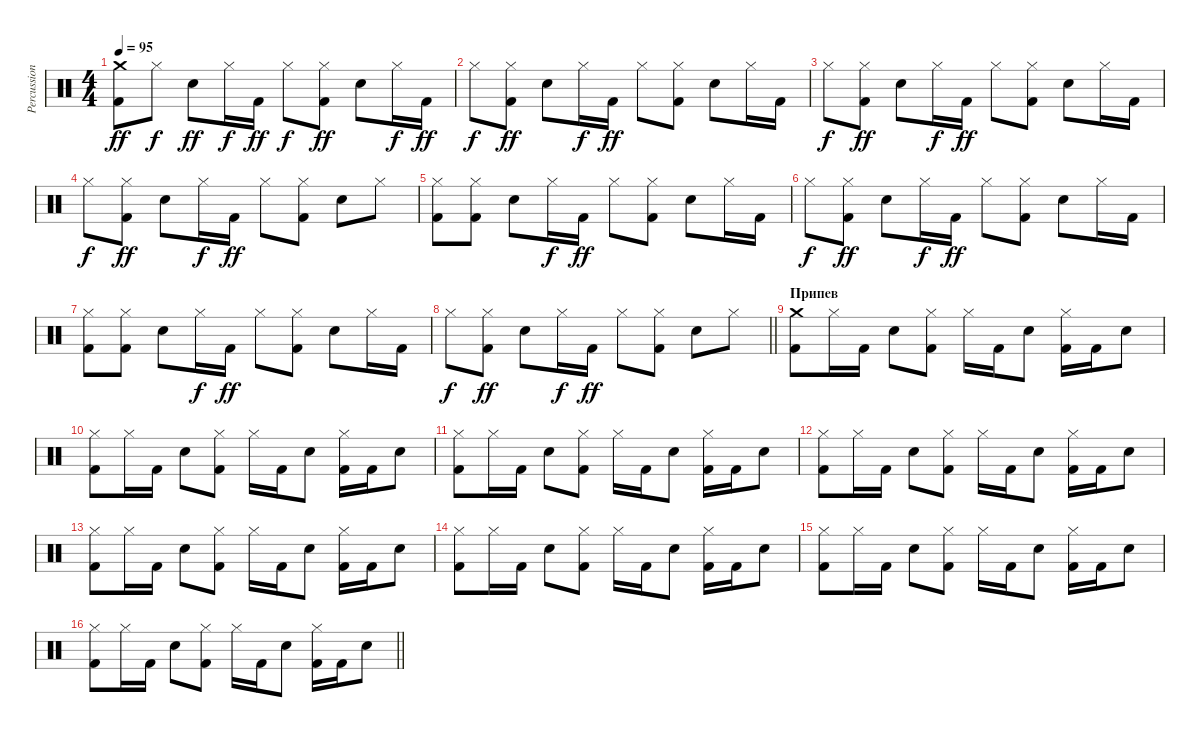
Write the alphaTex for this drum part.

\track ("Percussion" "Percussion") {instrument percussion}
\staff {score}
\articulation defaults
\ts (4 4)
\tempo 95
\clef neutral
\ks c
("Crash medium (hit)" "Kick (hit) 2").8{dy ff} "Hi-Hat (closed)".8{dy f} "Electric Snare (hit)".8{dy ff} "Hi-Hat (closed)".16{dy f} "Kick (hit) 2".16{dy ff} "Hi-Hat (closed)".8{dy f} ("Hi-Hat (closed)" "Kick (hit) 2").8{dy ff} "Electric Snare (hit)".8 "Hi-Hat (closed)".16{dy f} "Kick (hit) 2".16{dy ff} |
"Hi-Hat (closed)".8{dy f} ("Hi-Hat (closed)" "Kick (hit) 2").8{dy ff} "Electric Snare (hit)".8 "Hi-Hat (closed)".16{dy f} "Kick (hit) 2".16{dy ff} "Hi-Hat (closed)".8 ("Hi-Hat (closed)" "Kick (hit) 2").8 "Electric Snare (hit)".8 "Hi-Hat (closed)".16 "Kick (hit) 2".16 |
"Hi-Hat (closed)".8{dy f} ("Hi-Hat (closed)" "Kick (hit) 2").8{dy ff} "Electric Snare (hit)".8 "Hi-Hat (closed)".16{dy f} "Kick (hit) 2".16{dy ff} "Hi-Hat (closed)".8 ("Hi-Hat (closed)" "Kick (hit) 2").8 "Electric Snare (hit)".8 "Hi-Hat (closed)".16 "Kick (hit) 2".16 |
"Hi-Hat (closed)".8{dy f} ("Hi-Hat (closed)" "Kick (hit) 2").8{dy ff} "Electric Snare (hit)".8 "Hi-Hat (closed)".16{dy f} "Kick (hit) 2".16{dy ff} "Hi-Hat (closed)".8 ("Hi-Hat (closed)" "Kick (hit) 2").8 "Electric Snare (hit)".8 "Hi-Hat (closed)".8 |
("Hi-Hat (closed)" "Kick (hit) 2").8 ("Hi-Hat (closed)" "Kick (hit) 2").8 "Electric Snare (hit)".8 "Hi-Hat (closed)".16{dy f} "Kick (hit) 2".16{dy ff} "Hi-Hat (closed)".8 ("Hi-Hat (closed)" "Kick (hit) 2").8 "Electric Snare (hit)".8 "Hi-Hat (closed)".16 "Kick (hit) 2".16 |
"Hi-Hat (closed)".8{dy f} ("Hi-Hat (closed)" "Kick (hit) 2").8{dy ff} "Electric Snare (hit)".8 "Hi-Hat (closed)".16{dy f} "Kick (hit) 2".16{dy ff} "Hi-Hat (closed)".8 ("Hi-Hat (closed)" "Kick (hit) 2").8 "Electric Snare (hit)".8 "Hi-Hat (closed)".16 "Kick (hit) 2".16 |
("Hi-Hat (closed)" "Kick (hit) 2").8 ("Hi-Hat (closed)" "Kick (hit) 2").8 "Electric Snare (hit)".8 "Hi-Hat (closed)".16{dy f} "Kick (hit) 2".16{dy ff} "Hi-Hat (closed)".8 ("Hi-Hat (closed)" "Kick (hit) 2").8 "Electric Snare (hit)".8 "Hi-Hat (closed)".16 "Kick (hit) 2".16 |
\barLineRight lightlight "Hi-Hat (closed)".8{dy f}
("Hi-Hat (closed)" "Kick (hit) 2").8{dy ff} "Electric Snare (hit)".8 "Hi-Hat (closed)".16{dy f} "Kick (hit) 2".16{dy ff} "Hi-Hat (closed)".8 ("Hi-Hat (closed)" "Kick (hit) 2").8 "Electric Snare (hit)".8 "Hi-Hat (closed)".8 |
\section ("" "Припев")
("Crash medium (hit)" "Kick (hit) 2").8 "Hi-Hat (closed)".16 "Kick (hit) 2".16 "Electric Snare (hit)".8 ("Hi-Hat (closed)" "Kick (hit) 2").8 "Hi-Hat (closed)".16 "Kick (hit) 2".16 "Electric Snare (hit)".8 ("Hi-Hat (closed)" "Kick (hit) 2").16 "Kick (hit) 2".16 "Electric Snare (hit)".8 |
("Hi-Hat (closed)" "Kick (hit) 2").8 "Hi-Hat (closed)".16 "Kick (hit) 2".16 "Electric Snare (hit)".8 ("Hi-Hat (closed)" "Kick (hit) 2").8 "Hi-Hat (closed)".16 "Kick (hit) 2".16 "Electric Snare (hit)".8 ("Hi-Hat (closed)" "Kick (hit) 2").16 "Kick (hit) 2".16 "Electric Snare (hit)".8 |
("Hi-Hat (closed)" "Kick (hit) 2").8 "Hi-Hat (closed)".16 "Kick (hit) 2".16 "Electric Snare (hit)".8 ("Hi-Hat (closed)" "Kick (hit) 2").8 "Hi-Hat (closed)".16 "Kick (hit) 2".16 "Electric Snare (hit)".8 ("Hi-Hat (closed)" "Kick (hit) 2").16 "Kick (hit) 2".16 "Electric Snare (hit)".8 |
("Hi-Hat (closed)" "Kick (hit) 2").8 "Hi-Hat (closed)".16 "Kick (hit) 2".16 "Electric Snare (hit)".8 ("Hi-Hat (closed)" "Kick (hit) 2").8 "Hi-Hat (closed)".16 "Kick (hit) 2".16 "Electric Snare (hit)".8 ("Hi-Hat (closed)" "Kick (hit) 2").16 "Kick (hit) 2".16 "Electric Snare (hit)".8 |
("Hi-Hat (closed)" "Kick (hit) 2").8 "Hi-Hat (closed)".16 "Kick (hit) 2".16 "Electric Snare (hit)".8 ("Hi-Hat (closed)" "Kick (hit) 2").8 "Hi-Hat (closed)".16 "Kick (hit) 2".16 "Electric Snare (hit)".8 ("Hi-Hat (closed)" "Kick (hit) 2").16 "Kick (hit) 2".16 "Electric Snare (hit)".8 |
("Hi-Hat (closed)" "Kick (hit) 2").8 "Hi-Hat (closed)".16 "Kick (hit) 2".16 "Electric Snare (hit)".8 ("Hi-Hat (closed)" "Kick (hit) 2").8 "Hi-Hat (closed)".16 "Kick (hit) 2".16 "Electric Snare (hit)".8 ("Hi-Hat (closed)" "Kick (hit) 2").16 "Kick (hit) 2".16 "Electric Snare (hit)".8 |
("Hi-Hat (closed)" "Kick (hit) 2").8 "Hi-Hat (closed)".16 "Kick (hit) 2".16 "Electric Snare (hit)".8 ("Hi-Hat (closed)" "Kick (hit) 2").8 "Hi-Hat (closed)".16 "Kick (hit) 2".16 "Electric Snare (hit)".8 ("Hi-Hat (closed)" "Kick (hit) 2").16 "Kick (hit) 2".16 "Electric Snare (hit)".8 |
\barLineRight lightlight
("Hi-Hat (closed)" "Kick (hit) 2").8 "Hi-Hat (closed)".16 "Kick (hit) 2".16 "Electric Snare (hit)".8 ("Hi-Hat (closed)" "Kick (hit) 2").8 "Hi-Hat (closed)".16 "Kick (hit) 2".16 "Electric Snare (hit)".8 ("Hi-Hat (closed)" "Kick (hit) 2").16 "Kick (hit) 2".16 "Electric Snare (hit)".8
